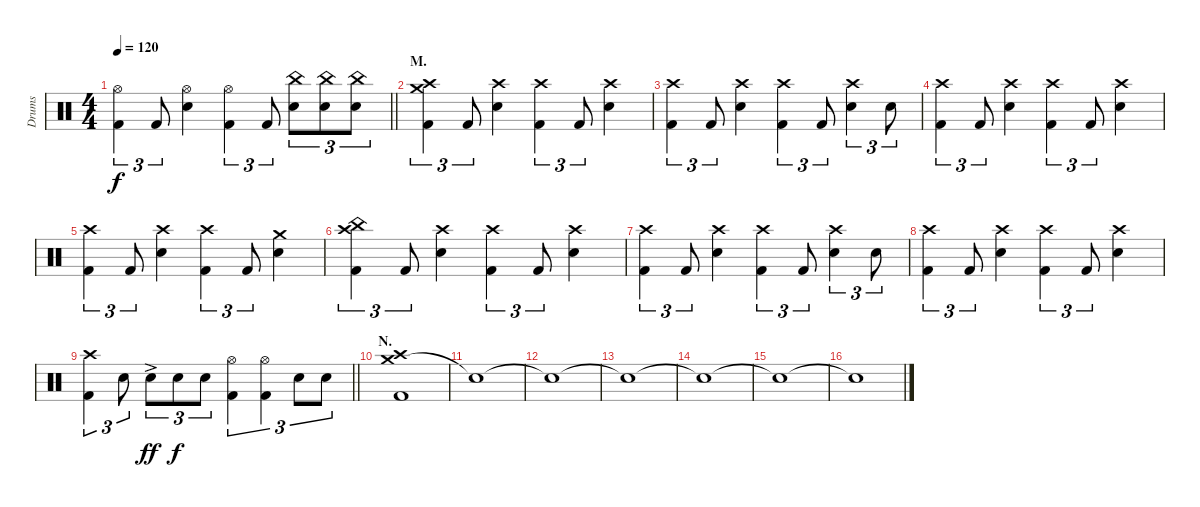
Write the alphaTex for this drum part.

\track ("Drums" "Drums") {instrument percussion}
\staff {score}
\articulation defaults
\ts (4 4)
\tempo 120
\clef neutral
\barLineRight lightlight
\ks c
("Hi-Hat (open)" "Kick (hit) 2").4{tu (3 2) dy f} "Kick (hit) 2".8{tu (3 2)} ("Hi-Hat (open)" "Electric Snare (hit)").4 ("Hi-Hat (open)" "Kick (hit) 2").4{tu (3 2)} "Kick (hit) 2".8{tu (3 2)} ("China (hit)" "Electric Snare (hit)").8{tu (3 2)} ("China (hit)" "Electric Snare (hit)").8{tu (3 2)} ("China (hit)" "Electric Snare (hit)").8{tu (3 2)} |
\section ("" "M.")
("Crash medium (hit)" "Crash high (hit)" "Kick (hit) 2").4{tu (3 2)} "Kick (hit) 2".8{tu (3 2)} ("Crash high (hit)" "Electric Snare (hit)").4 ("Crash high (hit)" "Kick (hit) 2").4{tu (3 2)} "Kick (hit) 2".8{tu (3 2)} ("Crash high (hit)" "Electric Snare (hit)").4 |
("Crash high (hit)" "Kick (hit) 2").4{tu (3 2)} "Kick (hit) 2".8{tu (3 2)} ("Crash high (hit)" "Electric Snare (hit)").4 ("Crash high (hit)" "Kick (hit) 2").4{tu (3 2)} "Kick (hit) 2".8{tu (3 2)} ("Crash high (hit)" "Electric Snare (hit)").4{tu (3 2)} "Electric Snare (hit)".8{tu (3 2)} |
("Crash high (hit)" "Kick (hit) 2").4{tu (3 2)} "Kick (hit) 2".8{tu (3 2)} ("Crash high (hit)" "Electric Snare (hit)").4 ("Crash high (hit)" "Kick (hit) 2").4{tu (3 2)} "Kick (hit) 2".8{tu (3 2)} ("Crash high (hit)" "Electric Snare (hit)").4 |
("Crash high (hit)" "Kick (hit) 2").4{tu (3 2)} "Kick (hit) 2".8{tu (3 2)} ("Crash high (hit)" "Electric Snare (hit)").4 ("Crash high (hit)" "Kick (hit) 2").4{tu (3 2)} "Kick (hit) 2".8{tu (3 2)} ("Crash medium (hit)" "Electric Snare (hit)").4 |
("China (hit)" "Crash high (hit)" "Kick (hit) 2").4{tu (3 2)} "Kick (hit) 2".8{tu (3 2)} ("Crash high (hit)" "Electric Snare (hit)").4 ("Crash high (hit)" "Kick (hit) 2").4{tu (3 2)} "Kick (hit) 2".8{tu (3 2)} ("Crash high (hit)" "Electric Snare (hit)").4 |
("Crash high (hit)" "Kick (hit) 2").4{tu (3 2)} "Kick (hit) 2".8{tu (3 2)} ("Crash high (hit)" "Electric Snare (hit)").4 ("Crash high (hit)" "Kick (hit) 2").4{tu (3 2)} "Kick (hit) 2".8{tu (3 2)} ("Crash high (hit)" "Electric Snare (hit)").4{tu (3 2)} "Electric Snare (hit)".8{tu (3 2)} |
("Crash high (hit)" "Kick (hit) 2").4{tu (3 2)} "Kick (hit) 2".8{tu (3 2)} ("Crash high (hit)" "Electric Snare (hit)").4 ("Crash high (hit)" "Kick (hit) 2").4{tu (3 2)} "Kick (hit) 2".8{tu (3 2)} ("Crash high (hit)" "Electric Snare (hit)").4 |
\barLineRight lightlight
("Crash high (hit)" "Kick (hit) 2").4{tu (3 2)} "Electric Snare (hit)".8{tu (3 2)} "Electric Snare (hit)"{ac}.8{tu (3 2) dy ff} "Electric Snare (hit)".8{tu (3 2) dy f} "Electric Snare (hit)".8{tu (3 2)} ("Hi-Hat (open)" "Kick (hit) 2").4{tu (3 2)} ("Hi-Hat (open)" "Kick (hit) 2").4{tu (3 2)} "Electric Snare (hit)".8{tu (3 2)} "Electric Snare (hit)".8{tu (3 2)} |
\section ("" "N.")
("Crash medium (hit)" "Crash high (hit)" "Kick (hit) 2").1 |
"Snare (hit)"{t}.1 |
"Snare (hit)"{t}.1 |
"Snare (hit)"{t}.1 |
"Snare (hit)"{t}.1 |
"Snare (hit)"{t}.1 |
"Snare (hit)"{t}.1
